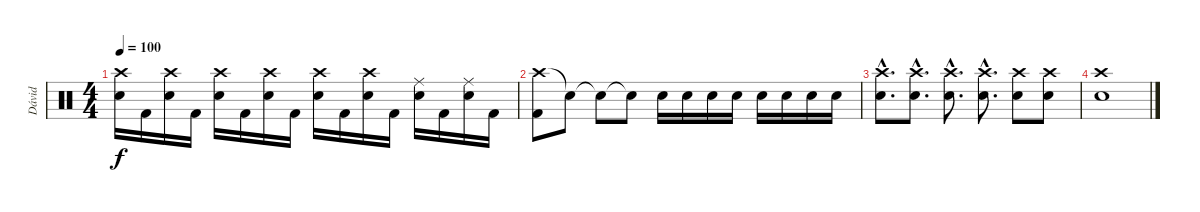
\track ("Dávid" "Dávid") {instrument percussion}
\staff {score}
\articulation defaults
\ts (4 4)
\tempo 100
\clef neutral
\ks c
("Crash high (hit)" "Snare (hit) 2").16{dy f} "Kick (hit) 2".16 ("Crash high (hit)" "Snare (hit) 2").16 "Kick (hit) 2".16 ("Crash high (hit)" "Snare (hit) 2").16 "Kick (hit) 2".16 ("Crash high (hit)" "Snare (hit) 2").16 "Kick (hit) 2".16 ("Crash high (hit)" "Snare (hit) 2").16 "Kick (hit) 2".16 ("Crash high (hit)" "Snare (hit) 2").16 "Kick (hit) 2".16 ("Ride (middle)" "Snare (hit) 2").16 "Kick (hit) 2".16 ("Ride (middle)" "Snare (hit) 2").16 "Kick (hit) 2".16 |
("Crash high (hit)" "Kick (hit) 2").8 "Snare (hit)"{t}.8 "Snare (hit)"{t}.8 "Snare (hit)"{t}.8 "Snare (hit) 2".16 "Snare (hit) 2".16 "Snare (hit) 2".16 "Snare (hit) 2".16 "Snare (hit) 2".16 "Snare (hit) 2".16 "Snare (hit) 2".16 "Snare (hit) 2".16 |
("Crash high (hit)"{hac} "Snare (hit) 2"{hac}).8{d} ("Crash high (hit)"{hac} "Snare (hit) 2"{hac}).8{d} ("Crash high (hit)"{hac} "Snare (hit) 2"{hac}).8{d} ("Crash high (hit)"{hac} "Snare (hit) 2"{hac}).8{d} ("Crash high (hit)" "Snare (hit) 2").8 ("Crash high (hit)" "Snare (hit) 2").8 |
("Crash high (hit)" "Snare (hit) 2").1
